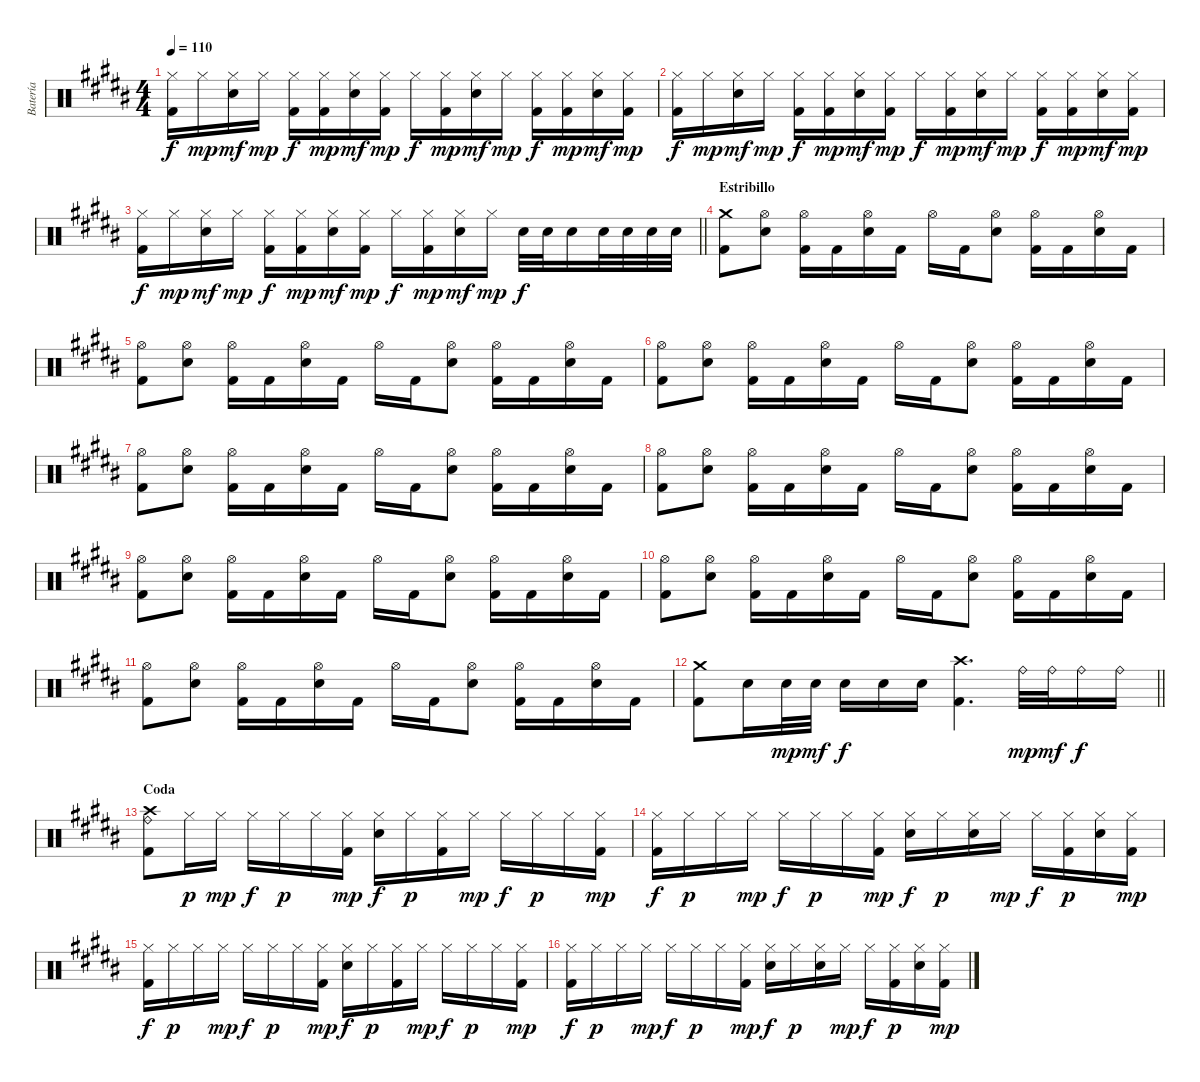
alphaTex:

\track ("Batería" "Batería") {instrument percussion}
\staff {score}
\articulation defaults
\ts (4 4)
\tempo 110
\clef neutral
\ks b
("Hi-Hat (closed)" "Kick (hit) 2").16{dy f} "Hi-Hat (closed)".16{dy mp} ("Hi-Hat (closed)" "Electric Snare (hit)").16{dy mf} "Hi-Hat (closed)".16{dy mp} ("Hi-Hat (closed)" "Kick (hit) 2").16{dy f} ("Hi-Hat (closed)" "Kick (hit) 2").16{dy mp} ("Hi-Hat (closed)" "Electric Snare (hit)").16{dy mf} ("Hi-Hat (closed)" "Kick (hit) 2").16{dy mp} "Hi-Hat (closed)".16{dy f} ("Hi-Hat (closed)" "Kick (hit) 2").16{dy mp} ("Hi-Hat (closed)" "Electric Snare (hit)").16{dy mf} "Hi-Hat (closed)".16{dy mp} ("Hi-Hat (closed)" "Kick (hit) 2").16{dy f} ("Hi-Hat (closed)" "Kick (hit) 2").16{dy mp} ("Hi-Hat (closed)" "Electric Snare (hit)").16{dy mf} ("Hi-Hat (closed)" "Kick (hit) 2").16{dy mp} |
("Hi-Hat (closed)" "Kick (hit) 2").16{dy f} "Hi-Hat (closed)".16{dy mp} ("Hi-Hat (closed)" "Electric Snare (hit)").16{dy mf} "Hi-Hat (closed)".16{dy mp} ("Hi-Hat (closed)" "Kick (hit) 2").16{dy f} ("Hi-Hat (closed)" "Kick (hit) 2").16{dy mp} ("Hi-Hat (closed)" "Electric Snare (hit)").16{dy mf} ("Hi-Hat (closed)" "Kick (hit) 2").16{dy mp} "Hi-Hat (closed)".16{dy f} ("Hi-Hat (closed)" "Kick (hit) 2").16{dy mp} ("Hi-Hat (closed)" "Electric Snare (hit)").16{dy mf} "Hi-Hat (closed)".16{dy mp} ("Hi-Hat (closed)" "Kick (hit) 2").16{dy f} ("Hi-Hat (closed)" "Kick (hit) 2").16{dy mp} ("Hi-Hat (closed)" "Electric Snare (hit)").16{dy mf} ("Hi-Hat (closed)" "Kick (hit) 2").16{dy mp} |
\barLineRight lightlight
("Hi-Hat (closed)" "Kick (hit) 2").16{dy f} "Hi-Hat (closed)".16{dy mp} ("Hi-Hat (closed)" "Electric Snare (hit)").16{dy mf} "Hi-Hat (closed)".16{dy mp} ("Hi-Hat (closed)" "Kick (hit) 2").16{dy f} ("Hi-Hat (closed)" "Kick (hit) 2").16{dy mp} ("Hi-Hat (closed)" "Electric Snare (hit)").16{dy mf} ("Hi-Hat (closed)" "Kick (hit) 2").16{dy mp} "Hi-Hat (closed)".16{dy f} ("Hi-Hat (closed)" "Kick (hit) 2").16{dy mp} ("Hi-Hat (closed)" "Electric Snare (hit)").16{dy mf} "Hi-Hat (closed)".16{dy mp} "Electric Snare (hit)".32{dy f} "Electric Snare (hit)".32 "Electric Snare (hit)".16 "Electric Snare (hit)".32 "Electric Snare (hit)".32 "Electric Snare (hit)".32 "Electric Snare (hit)".32 |
\section ("" "Estribillo")
("Crash medium (hit)" "Kick (hit) 2").8 ("Hi-Hat (open)" "Electric Snare (hit)").8 ("Hi-Hat (open)" "Kick (hit) 2").16 "Kick (hit) 2".16 ("Hi-Hat (open)" "Electric Snare (hit)").16 "Kick (hit) 2".16 "Hi-Hat (open)".16 "Kick (hit) 2".16 ("Hi-Hat (open)" "Electric Snare (hit)").8 ("Hi-Hat (open)" "Kick (hit) 2").16 "Kick (hit) 2".16 ("Hi-Hat (open)" "Electric Snare (hit)").16 "Kick (hit) 2".16 |
("Hi-Hat (open)" "Kick (hit) 2").8 ("Hi-Hat (open)" "Electric Snare (hit)").8 ("Hi-Hat (open)" "Kick (hit) 2").16 "Kick (hit) 2".16 ("Hi-Hat (open)" "Electric Snare (hit)").16 "Kick (hit) 2".16 "Hi-Hat (open)".16 "Kick (hit) 2".16 ("Hi-Hat (open)" "Electric Snare (hit)").8 ("Hi-Hat (open)" "Kick (hit) 2").16 "Kick (hit) 2".16 ("Hi-Hat (open)" "Electric Snare (hit)").16 "Kick (hit) 2".16 |
("Hi-Hat (open)" "Kick (hit) 2").8 ("Hi-Hat (open)" "Electric Snare (hit)").8 ("Hi-Hat (open)" "Kick (hit) 2").16 "Kick (hit) 2".16 ("Hi-Hat (open)" "Electric Snare (hit)").16 "Kick (hit) 2".16 "Hi-Hat (open)".16 "Kick (hit) 2".16 ("Hi-Hat (open)" "Electric Snare (hit)").8 ("Hi-Hat (open)" "Kick (hit) 2").16 "Kick (hit) 2".16 ("Hi-Hat (open)" "Electric Snare (hit)").16 "Kick (hit) 2".16 |
("Hi-Hat (open)" "Kick (hit) 2").8 ("Hi-Hat (open)" "Electric Snare (hit)").8 ("Hi-Hat (open)" "Kick (hit) 2").16 "Kick (hit) 2".16 ("Hi-Hat (open)" "Electric Snare (hit)").16 "Kick (hit) 2".16 "Hi-Hat (open)".16 "Kick (hit) 2".16 ("Hi-Hat (open)" "Electric Snare (hit)").8 ("Hi-Hat (open)" "Kick (hit) 2").16 "Kick (hit) 2".16 ("Hi-Hat (open)" "Electric Snare (hit)").16 "Kick (hit) 2".16 |
("Hi-Hat (open)" "Kick (hit) 2").8 ("Hi-Hat (open)" "Electric Snare (hit)").8 ("Hi-Hat (open)" "Kick (hit) 2").16 "Kick (hit) 2".16 ("Hi-Hat (open)" "Electric Snare (hit)").16 "Kick (hit) 2".16 "Hi-Hat (open)".16 "Kick (hit) 2".16 ("Hi-Hat (open)" "Electric Snare (hit)").8 ("Hi-Hat (open)" "Kick (hit) 2").16 "Kick (hit) 2".16 ("Hi-Hat (open)" "Electric Snare (hit)").16 "Kick (hit) 2".16 |
("Hi-Hat (open)" "Kick (hit) 2").8 ("Hi-Hat (open)" "Electric Snare (hit)").8 ("Hi-Hat (open)" "Kick (hit) 2").16 "Kick (hit) 2".16 ("Hi-Hat (open)" "Electric Snare (hit)").16 "Kick (hit) 2".16 "Hi-Hat (open)".16 "Kick (hit) 2".16 ("Hi-Hat (open)" "Electric Snare (hit)").8 ("Hi-Hat (open)" "Kick (hit) 2").16 "Kick (hit) 2".16 ("Hi-Hat (open)" "Electric Snare (hit)").16 "Kick (hit) 2".16 |
("Hi-Hat (open)" "Kick (hit) 2").8 ("Hi-Hat (open)" "Electric Snare (hit)").8 ("Hi-Hat (open)" "Kick (hit) 2").16 "Kick (hit) 2".16 ("Hi-Hat (open)" "Electric Snare (hit)").16 "Kick (hit) 2".16 "Hi-Hat (open)".16 "Kick (hit) 2".16 ("Hi-Hat (open)" "Electric Snare (hit)").8 ("Hi-Hat (open)" "Kick (hit) 2").16 "Kick (hit) 2".16 ("Hi-Hat (open)" "Electric Snare (hit)").16 "Kick (hit) 2".16 |
("Hi-Hat (open)" "Kick (hit) 2").8 ("Hi-Hat (open)" "Electric Snare (hit)").8 ("Hi-Hat (open)" "Kick (hit) 2").16 "Kick (hit) 2".16 ("Hi-Hat (open)" "Electric Snare (hit)").16 "Kick (hit) 2".16 "Hi-Hat (open)".16 "Kick (hit) 2".16 ("Hi-Hat (open)" "Electric Snare (hit)").8 ("Hi-Hat (open)" "Kick (hit) 2").16 "Kick (hit) 2".16 ("Hi-Hat (open)" "Electric Snare (hit)").16 "Kick (hit) 2".16 |
\barLineRight lightlight
("Crash medium (hit)" "Kick (hit) 2").8 "Electric Snare (hit)".16 "Electric Snare (hit)".32{dy mp} "Electric Snare (hit)".32{dy mf} "Electric Snare (hit)".16{dy f} "Electric Snare (hit)".16 "Electric Snare (hit)".16 ("Crash high (hit)" "Kick (hit) 2").4{d} "Ride (bell)".32{dy mp} "Ride (bell)".32{dy mf} "Ride (bell)".16{dy f} "Ride (bell)".16 |
\section ("" "Coda")
("Crash high (hit)" "Ride (bell)" "Kick (hit) 2").8 "Hi-Hat (closed)".16{dy p} "Hi-Hat (closed)".16{dy mp} "Hi-Hat (closed)".16{dy f} "Hi-Hat (closed)".16{dy p} "Hi-Hat (closed)".16 ("Hi-Hat (closed)" "Kick (hit) 2").16{dy mp} ("Hi-Hat (closed)" "Electric Snare (hit)").16{dy f} "Hi-Hat (closed)".16{dy p} ("Hi-Hat (closed)" "Kick (hit) 2").16 "Hi-Hat (closed)".16{dy mp} "Hi-Hat (closed)".16{dy f} "Hi-Hat (closed)".16{dy p} "Hi-Hat (closed)".16 ("Hi-Hat (closed)" "Kick (hit) 2").16{dy mp} |
("Hi-Hat (closed)" "Kick (hit) 2").16{dy f} "Hi-Hat (closed)".16{dy p} "Hi-Hat (closed)".16 "Hi-Hat (closed)".16{dy mp} "Hi-Hat (closed)".16{dy f} "Hi-Hat (closed)".16{dy p} "Hi-Hat (closed)".16 ("Hi-Hat (closed)" "Kick (hit) 2").16{dy mp} ("Hi-Hat (closed)" "Electric Snare (hit)").16{dy f} "Hi-Hat (closed)".16{dy p} ("Hi-Hat (closed)" "Electric Snare (hit)").16 "Hi-Hat (closed)".16{dy mp} "Hi-Hat (closed)".16{dy f} ("Hi-Hat (closed)" "Kick (hit) 2").16{dy p} ("Hi-Hat (closed)" "Electric Snare (hit)").16 ("Hi-Hat (closed)" "Kick (hit) 2").16{dy mp} |
("Hi-Hat (closed)" "Kick (hit) 2").16{dy f} "Hi-Hat (closed)".16{dy p} "Hi-Hat (closed)".16 "Hi-Hat (closed)".16{dy mp} "Hi-Hat (closed)".16{dy f} "Hi-Hat (closed)".16{dy p} "Hi-Hat (closed)".16 ("Hi-Hat (closed)" "Kick (hit) 2").16{dy mp} ("Hi-Hat (closed)" "Electric Snare (hit)").16{dy f} "Hi-Hat (closed)".16{dy p} ("Hi-Hat (closed)" "Kick (hit) 2").16 "Hi-Hat (closed)".16{dy mp} "Hi-Hat (closed)".16{dy f} "Hi-Hat (closed)".16{dy p} "Hi-Hat (closed)".16 ("Hi-Hat (closed)" "Kick (hit) 2").16{dy mp} |
("Hi-Hat (closed)" "Kick (hit) 2").16{dy f} "Hi-Hat (closed)".16{dy p} "Hi-Hat (closed)".16 "Hi-Hat (closed)".16{dy mp} "Hi-Hat (closed)".16{dy f} "Hi-Hat (closed)".16{dy p} "Hi-Hat (closed)".16 ("Hi-Hat (closed)" "Kick (hit) 2").16{dy mp} ("Hi-Hat (closed)" "Electric Snare (hit)").16{dy f} "Hi-Hat (closed)".16{dy p} ("Hi-Hat (closed)" "Electric Snare (hit)").16 "Hi-Hat (closed)".16{dy mp} "Hi-Hat (closed)".16{dy f} ("Hi-Hat (closed)" "Kick (hit) 2").16{dy p} ("Hi-Hat (closed)" "Electric Snare (hit)").16 ("Hi-Hat (closed)" "Kick (hit) 2").16{dy mp}
